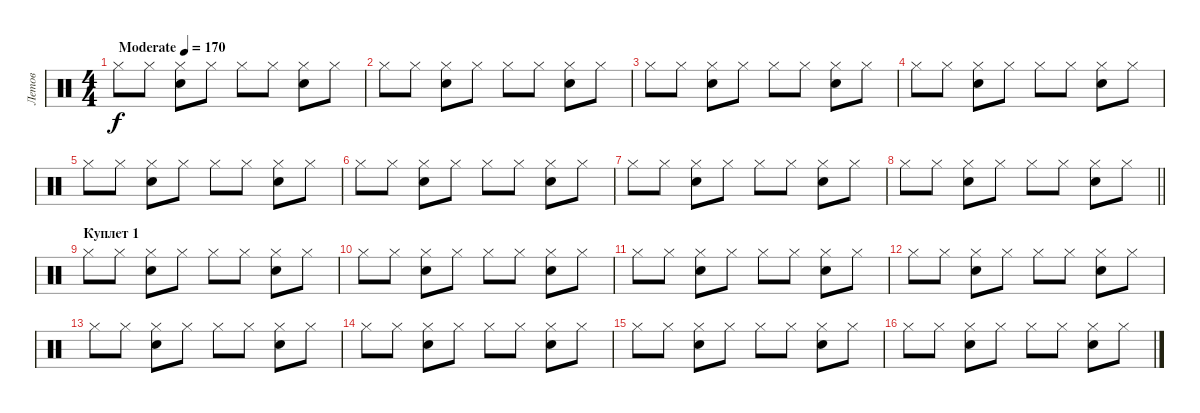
\track ("Летов" "Летов") {instrument percussion}
\staff {score}
\articulation defaults
\ts (4 4)
\tempo (170 "Moderate")
\clef neutral
\ks c "Hi-Hat (closed)".8{dy f} "Hi-Hat (closed)".8
("Hi-Hat (closed)" "Electric Snare (hit)").8 "Hi-Hat (closed)".8 "Hi-Hat (closed)".8 "Hi-Hat (closed)".8 ("Hi-Hat (closed)" "Electric Snare (hit)").8 "Hi-Hat (closed)".8 |
"Hi-Hat (closed)".8 "Hi-Hat (closed)".8 ("Hi-Hat (closed)" "Electric Snare (hit)").8 "Hi-Hat (closed)".8 "Hi-Hat (closed)".8 "Hi-Hat (closed)".8 ("Hi-Hat (closed)" "Electric Snare (hit)").8 "Hi-Hat (closed)".8 |
"Hi-Hat (closed)".8 "Hi-Hat (closed)".8 ("Hi-Hat (closed)" "Electric Snare (hit)").8 "Hi-Hat (closed)".8 "Hi-Hat (closed)".8 "Hi-Hat (closed)".8 ("Hi-Hat (closed)" "Electric Snare (hit)").8 "Hi-Hat (closed)".8 |
"Hi-Hat (closed)".8 "Hi-Hat (closed)".8 ("Hi-Hat (closed)" "Electric Snare (hit)").8 "Hi-Hat (closed)".8 "Hi-Hat (closed)".8 "Hi-Hat (closed)".8 ("Hi-Hat (closed)" "Electric Snare (hit)").8 "Hi-Hat (closed)".8 |
"Hi-Hat (closed)".8 "Hi-Hat (closed)".8 ("Hi-Hat (closed)" "Electric Snare (hit)").8 "Hi-Hat (closed)".8 "Hi-Hat (closed)".8 "Hi-Hat (closed)".8 ("Hi-Hat (closed)" "Electric Snare (hit)").8 "Hi-Hat (closed)".8 |
"Hi-Hat (closed)".8 "Hi-Hat (closed)".8 ("Hi-Hat (closed)" "Electric Snare (hit)").8 "Hi-Hat (closed)".8 "Hi-Hat (closed)".8 "Hi-Hat (closed)".8 ("Hi-Hat (closed)" "Electric Snare (hit)").8 "Hi-Hat (closed)".8 |
"Hi-Hat (closed)".8 "Hi-Hat (closed)".8 ("Hi-Hat (closed)" "Electric Snare (hit)").8 "Hi-Hat (closed)".8 "Hi-Hat (closed)".8 "Hi-Hat (closed)".8 ("Hi-Hat (closed)" "Electric Snare (hit)").8 "Hi-Hat (closed)".8 |
\barLineRight lightlight "Hi-Hat (closed)".8 "Hi-Hat (closed)".8
("Hi-Hat (closed)" "Electric Snare (hit)").8 "Hi-Hat (closed)".8 "Hi-Hat (closed)".8 "Hi-Hat (closed)".8 ("Hi-Hat (closed)" "Electric Snare (hit)").8 "Hi-Hat (closed)".8 |
\section ("" "Куплет 1")
"Hi-Hat (closed)".8 "Hi-Hat (closed)".8 ("Hi-Hat (closed)" "Electric Snare (hit)").8 "Hi-Hat (closed)".8 "Hi-Hat (closed)".8 "Hi-Hat (closed)".8 ("Hi-Hat (closed)" "Electric Snare (hit)").8 "Hi-Hat (closed)".8 |
"Hi-Hat (closed)".8 "Hi-Hat (closed)".8 ("Hi-Hat (closed)" "Electric Snare (hit)").8 "Hi-Hat (closed)".8 "Hi-Hat (closed)".8 "Hi-Hat (closed)".8 ("Hi-Hat (closed)" "Electric Snare (hit)").8 "Hi-Hat (closed)".8 |
"Hi-Hat (closed)".8 "Hi-Hat (closed)".8 ("Hi-Hat (closed)" "Electric Snare (hit)").8 "Hi-Hat (closed)".8 "Hi-Hat (closed)".8 "Hi-Hat (closed)".8 ("Hi-Hat (closed)" "Electric Snare (hit)").8 "Hi-Hat (closed)".8 |
"Hi-Hat (closed)".8 "Hi-Hat (closed)".8 ("Hi-Hat (closed)" "Electric Snare (hit)").8 "Hi-Hat (closed)".8 "Hi-Hat (closed)".8 "Hi-Hat (closed)".8 ("Hi-Hat (closed)" "Electric Snare (hit)").8 "Hi-Hat (closed)".8 |
"Hi-Hat (closed)".8 "Hi-Hat (closed)".8 ("Hi-Hat (closed)" "Electric Snare (hit)").8 "Hi-Hat (closed)".8 "Hi-Hat (closed)".8 "Hi-Hat (closed)".8 ("Hi-Hat (closed)" "Electric Snare (hit)").8 "Hi-Hat (closed)".8 |
"Hi-Hat (closed)".8 "Hi-Hat (closed)".8 ("Hi-Hat (closed)" "Electric Snare (hit)").8 "Hi-Hat (closed)".8 "Hi-Hat (closed)".8 "Hi-Hat (closed)".8 ("Hi-Hat (closed)" "Electric Snare (hit)").8 "Hi-Hat (closed)".8 |
"Hi-Hat (closed)".8 "Hi-Hat (closed)".8 ("Hi-Hat (closed)" "Electric Snare (hit)").8 "Hi-Hat (closed)".8 "Hi-Hat (closed)".8 "Hi-Hat (closed)".8 ("Hi-Hat (closed)" "Electric Snare (hit)").8 "Hi-Hat (closed)".8 |
"Hi-Hat (closed)".8 "Hi-Hat (closed)".8 ("Hi-Hat (closed)" "Electric Snare (hit)").8 "Hi-Hat (closed)".8 "Hi-Hat (closed)".8 "Hi-Hat (closed)".8 ("Hi-Hat (closed)" "Electric Snare (hit)").8 "Hi-Hat (closed)".8
